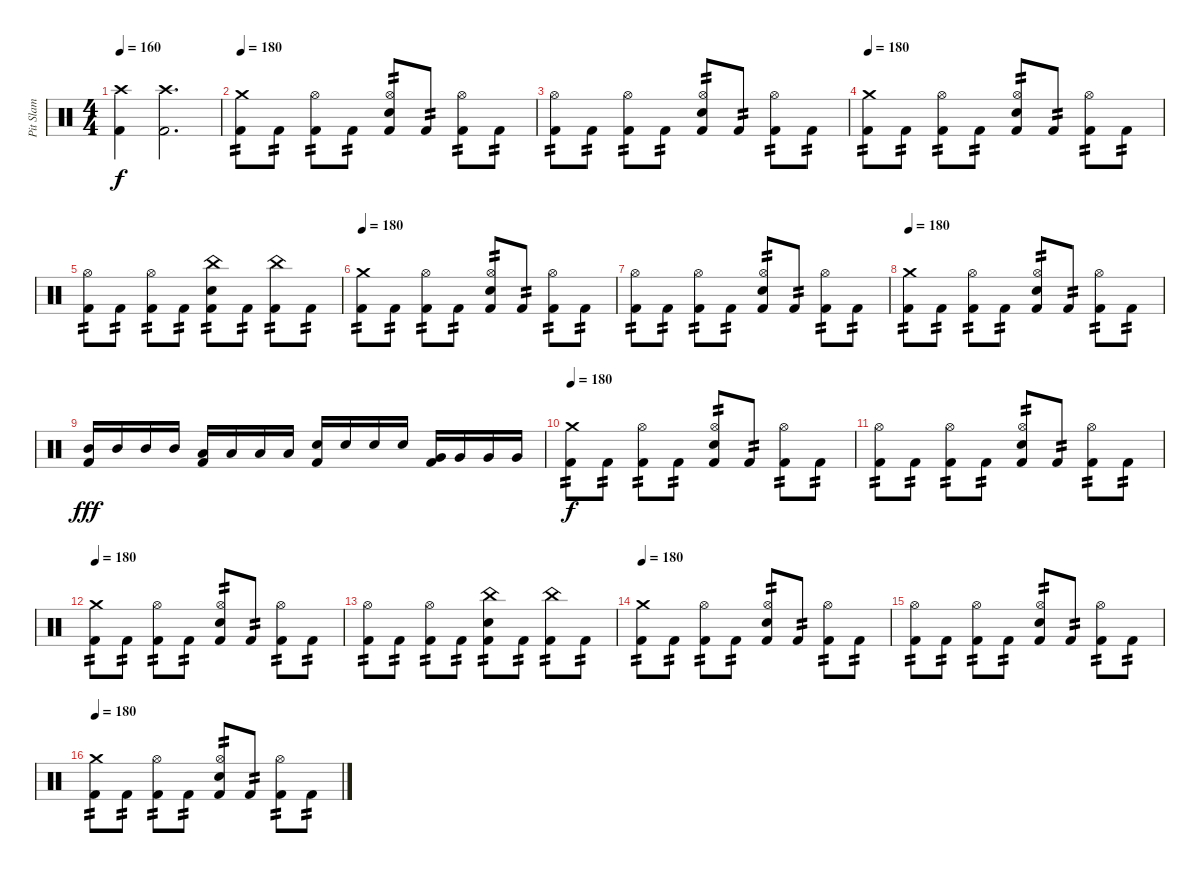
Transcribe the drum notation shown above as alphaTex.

\track ("Pit Slam" "Pit Slam") {instrument percussion}
\staff {score}
\articulation defaults
\ts (4 4)
\tempo 160
\clef neutral
\ks c
("Crash high (hit)" "Kick (hit) 2").4{dy f} ("Crash high (hit)" "Kick (hit) 2").2{d} |
\tempo 180
("Crash medium (hit)" "Kick (hit) 2").8{tp 2} "Kick (hit) 2".8{tp 2} ("Hi-Hat (open)" "Kick (hit) 2").8{tp 2} "Kick (hit) 2".8{tp 2} ("Hi-Hat (open)" "Electric Snare (hit)" "Kick (hit) 2").8{tp 2} "Kick (hit) 2".8{tp 2} ("Hi-Hat (open)" "Kick (hit) 2").8{tp 2} "Kick (hit) 2".8{tp 2} |
("Hi-Hat (open)" "Kick (hit) 2").8{tp 2} "Kick (hit) 2".8{tp 2} ("Hi-Hat (open)" "Kick (hit) 2").8{tp 2} "Kick (hit) 2".8{tp 2} ("Hi-Hat (open)" "Electric Snare (hit)" "Kick (hit) 2").8{tp 2} "Kick (hit) 2".8{tp 2} ("Hi-Hat (open)" "Kick (hit) 2").8{tp 2} "Kick (hit) 2".8{tp 2} |
\tempo 180
("Crash medium (hit)" "Kick (hit) 2").8{tp 2} "Kick (hit) 2".8{tp 2} ("Hi-Hat (open)" "Kick (hit) 2").8{tp 2} "Kick (hit) 2".8{tp 2} ("Hi-Hat (open)" "Electric Snare (hit)" "Kick (hit) 2").8{tp 2} "Kick (hit) 2".8{tp 2} ("Hi-Hat (open)" "Kick (hit) 2").8{tp 2} "Kick (hit) 2".8{tp 2} |
("Hi-Hat (open)" "Kick (hit) 2").8{tp 2} "Kick (hit) 2".8{tp 2} ("Hi-Hat (open)" "Kick (hit) 2").8{tp 2} "Kick (hit) 2".8{tp 2} ("China (hit)" "Electric Snare (hit)" "Kick (hit) 2").8{tp 2} "Kick (hit) 2".8{tp 2} ("China (hit)" "Kick (hit) 2").8{tp 2} "Kick (hit) 2".8{tp 2} |
\tempo 180
("Crash medium (hit)" "Kick (hit) 2").8{tp 2} "Kick (hit) 2".8{tp 2} ("Hi-Hat (open)" "Kick (hit) 2").8{tp 2} "Kick (hit) 2".8{tp 2} ("Hi-Hat (open)" "Electric Snare (hit)" "Kick (hit) 2").8{tp 2} "Kick (hit) 2".8{tp 2} ("Hi-Hat (open)" "Kick (hit) 2").8{tp 2} "Kick (hit) 2".8{tp 2} |
("Hi-Hat (open)" "Kick (hit) 2").8{tp 2} "Kick (hit) 2".8{tp 2} ("Hi-Hat (open)" "Kick (hit) 2").8{tp 2} "Kick (hit) 2".8{tp 2} ("Hi-Hat (open)" "Electric Snare (hit)" "Kick (hit) 2").8{tp 2} "Kick (hit) 2".8{tp 2} ("Hi-Hat (open)" "Kick (hit) 2").8{tp 2} "Kick (hit) 2".8{tp 2} |
\tempo 180
("Crash medium (hit)" "Kick (hit) 2").8{tp 2} "Kick (hit) 2".8{tp 2} ("Hi-Hat (open)" "Kick (hit) 2").8{tp 2} "Kick (hit) 2".8{tp 2} ("Hi-Hat (open)" "Electric Snare (hit)" "Kick (hit) 2").8{tp 2} "Kick (hit) 2".8{tp 2} ("Hi-Hat (open)" "Kick (hit) 2").8{tp 2} "Kick (hit) 2".8{tp 2} |
("Mid Tom (hit)" "Kick (hit) 2").16{dy fff} "Mid Tom (hit)".16 "Mid Tom (hit)".16 "Mid Tom (hit)".16 ("Low Tom (hit)" "Kick (hit) 2").16 "Low Tom (hit)".16 "Low Tom (hit)".16 "Low Tom (hit)".16 ("Electric Snare (hit)" "Kick (hit) 2").16 "Electric Snare (hit)".16 "Electric Snare (hit)".16 "Electric Snare (hit)".16 ("Very Low Tom (hit)" "Kick (hit) 2").16 "Very Low Tom (hit)".16 "Very Low Tom (hit)".16 "Very Low Tom (hit)".16 |
\tempo 180
("Crash medium (hit)" "Kick (hit) 2").8{tp 2 dy f} "Kick (hit) 2".8{tp 2} ("Hi-Hat (open)" "Kick (hit) 2").8{tp 2} "Kick (hit) 2".8{tp 2} ("Hi-Hat (open)" "Electric Snare (hit)" "Kick (hit) 2").8{tp 2} "Kick (hit) 2".8{tp 2} ("Hi-Hat (open)" "Kick (hit) 2").8{tp 2} "Kick (hit) 2".8{tp 2} |
("Hi-Hat (open)" "Kick (hit) 2").8{tp 2} "Kick (hit) 2".8{tp 2} ("Hi-Hat (open)" "Kick (hit) 2").8{tp 2} "Kick (hit) 2".8{tp 2} ("Hi-Hat (open)" "Electric Snare (hit)" "Kick (hit) 2").8{tp 2} "Kick (hit) 2".8{tp 2} ("Hi-Hat (open)" "Kick (hit) 2").8{tp 2} "Kick (hit) 2".8{tp 2} |
\tempo 180
("Crash medium (hit)" "Kick (hit) 2").8{tp 2} "Kick (hit) 2".8{tp 2} ("Hi-Hat (open)" "Kick (hit) 2").8{tp 2} "Kick (hit) 2".8{tp 2} ("Hi-Hat (open)" "Electric Snare (hit)" "Kick (hit) 2").8{tp 2} "Kick (hit) 2".8{tp 2} ("Hi-Hat (open)" "Kick (hit) 2").8{tp 2} "Kick (hit) 2".8{tp 2} |
("Hi-Hat (open)" "Kick (hit) 2").8{tp 2} "Kick (hit) 2".8{tp 2} ("Hi-Hat (open)" "Kick (hit) 2").8{tp 2} "Kick (hit) 2".8{tp 2} ("China (hit)" "Electric Snare (hit)" "Kick (hit) 2").8{tp 2} "Kick (hit) 2".8{tp 2} ("China (hit)" "Kick (hit) 2").8{tp 2} "Kick (hit) 2".8{tp 2} |
\tempo 180
("Crash medium (hit)" "Kick (hit) 2").8{tp 2} "Kick (hit) 2".8{tp 2} ("Hi-Hat (open)" "Kick (hit) 2").8{tp 2} "Kick (hit) 2".8{tp 2} ("Hi-Hat (open)" "Electric Snare (hit)" "Kick (hit) 2").8{tp 2} "Kick (hit) 2".8{tp 2} ("Hi-Hat (open)" "Kick (hit) 2").8{tp 2} "Kick (hit) 2".8{tp 2} |
("Hi-Hat (open)" "Kick (hit) 2").8{tp 2} "Kick (hit) 2".8{tp 2} ("Hi-Hat (open)" "Kick (hit) 2").8{tp 2} "Kick (hit) 2".8{tp 2} ("Hi-Hat (open)" "Electric Snare (hit)" "Kick (hit) 2").8{tp 2} "Kick (hit) 2".8{tp 2} ("Hi-Hat (open)" "Kick (hit) 2").8{tp 2} "Kick (hit) 2".8{tp 2} |
\tempo 180
("Crash medium (hit)" "Kick (hit) 2").8{tp 2} "Kick (hit) 2".8{tp 2} ("Hi-Hat (open)" "Kick (hit) 2").8{tp 2} "Kick (hit) 2".8{tp 2} ("Hi-Hat (open)" "Electric Snare (hit)" "Kick (hit) 2").8{tp 2} "Kick (hit) 2".8{tp 2} ("Hi-Hat (open)" "Kick (hit) 2").8{tp 2} "Kick (hit) 2".8{tp 2}
